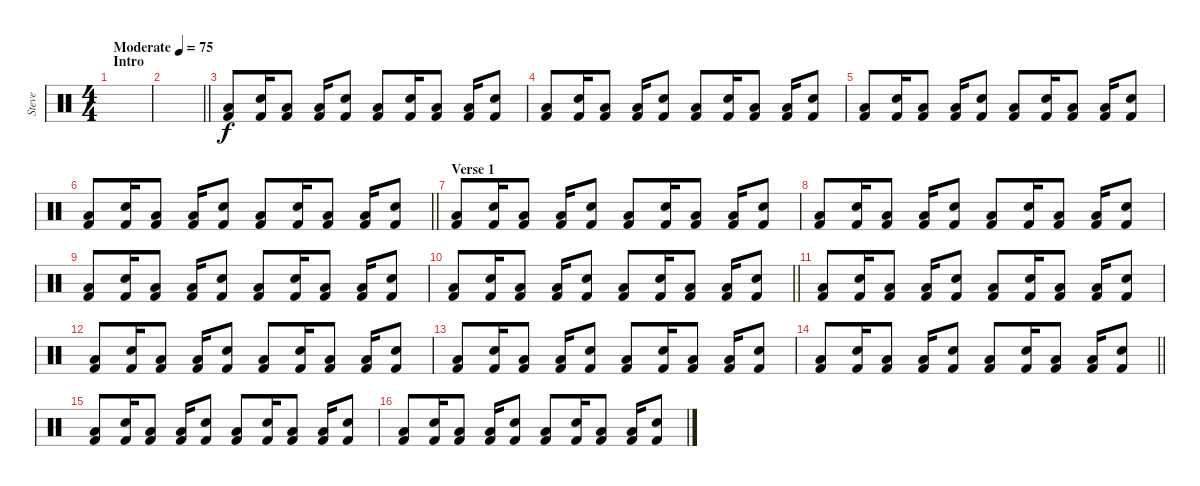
\track ("Steve" "Steve") {instrument percussion}
\staff {score}
\articulation defaults
\ts (4 4)
\section ("" "Intro")
\tempo (75 "Moderate")
\clef neutral
\ks c
|
\barLineRight lightlight
|
("Kick (hit) 2" "Low Floor Tom (hit)").8 ("Kick (hit) 2" "Snare (hit) 2").16 ("Kick (hit) 2" "Low Floor Tom (hit)").8 ("Kick (hit) 2" "Low Floor Tom (hit)").16 ("Kick (hit) 2" "Snare (hit) 2").8 ("Kick (hit) 2" "Low Floor Tom (hit)").8 ("Kick (hit) 2" "Snare (hit) 2").16 ("Kick (hit) 2" "Low Floor Tom (hit)").8 ("Kick (hit) 2" "Low Floor Tom (hit)").16 ("Kick (hit) 2" "Snare (hit) 2").8 |
("Kick (hit) 2" "Low Floor Tom (hit)").8 ("Kick (hit) 2" "Snare (hit) 2").16 ("Kick (hit) 2" "Low Floor Tom (hit)").8 ("Kick (hit) 2" "Low Floor Tom (hit)").16 ("Kick (hit) 2" "Snare (hit) 2").8 ("Kick (hit) 2" "Low Floor Tom (hit)").8 ("Kick (hit) 2" "Snare (hit) 2").16 ("Kick (hit) 2" "Low Floor Tom (hit)").8 ("Kick (hit) 2" "Low Floor Tom (hit)").16 ("Kick (hit) 2" "Snare (hit) 2").8 |
("Kick (hit) 2" "Low Floor Tom (hit)").8 ("Kick (hit) 2" "Snare (hit) 2").16 ("Kick (hit) 2" "Low Floor Tom (hit)").8 ("Kick (hit) 2" "Low Floor Tom (hit)").16 ("Kick (hit) 2" "Snare (hit) 2").8 ("Kick (hit) 2" "Low Floor Tom (hit)").8 ("Kick (hit) 2" "Snare (hit) 2").16 ("Kick (hit) 2" "Low Floor Tom (hit)").8 ("Kick (hit) 2" "Low Floor Tom (hit)").16 ("Kick (hit) 2" "Snare (hit) 2").8 |
\barLineRight lightlight
("Kick (hit) 2" "Low Floor Tom (hit)").8 ("Kick (hit) 2" "Snare (hit) 2").16 ("Kick (hit) 2" "Low Floor Tom (hit)").8 ("Kick (hit) 2" "Low Floor Tom (hit)").16 ("Kick (hit) 2" "Snare (hit) 2").8 ("Kick (hit) 2" "Low Floor Tom (hit)").8 ("Kick (hit) 2" "Snare (hit) 2").16 ("Kick (hit) 2" "Low Floor Tom (hit)").8 ("Kick (hit) 2" "Low Floor Tom (hit)").16 ("Kick (hit) 2" "Snare (hit) 2").8 |
\section ("" "Verse 1")
("Kick (hit) 2" "Low Floor Tom (hit)").8 ("Kick (hit) 2" "Snare (hit) 2").16 ("Kick (hit) 2" "Low Floor Tom (hit)").8 ("Kick (hit) 2" "Low Floor Tom (hit)").16 ("Kick (hit) 2" "Snare (hit) 2").8 ("Kick (hit) 2" "Low Floor Tom (hit)").8 ("Kick (hit) 2" "Snare (hit) 2").16 ("Kick (hit) 2" "Low Floor Tom (hit)").8 ("Kick (hit) 2" "Low Floor Tom (hit)").16 ("Kick (hit) 2" "Snare (hit) 2").8 |
("Kick (hit) 2" "Low Floor Tom (hit)").8 ("Kick (hit) 2" "Snare (hit) 2").16 ("Kick (hit) 2" "Low Floor Tom (hit)").8 ("Kick (hit) 2" "Low Floor Tom (hit)").16 ("Kick (hit) 2" "Snare (hit) 2").8 ("Kick (hit) 2" "Low Floor Tom (hit)").8 ("Kick (hit) 2" "Snare (hit) 2").16 ("Kick (hit) 2" "Low Floor Tom (hit)").8 ("Kick (hit) 2" "Low Floor Tom (hit)").16 ("Kick (hit) 2" "Snare (hit) 2").8 |
("Kick (hit) 2" "Low Floor Tom (hit)").8 ("Kick (hit) 2" "Snare (hit) 2").16 ("Kick (hit) 2" "Low Floor Tom (hit)").8 ("Kick (hit) 2" "Low Floor Tom (hit)").16 ("Kick (hit) 2" "Snare (hit) 2").8 ("Kick (hit) 2" "Low Floor Tom (hit)").8 ("Kick (hit) 2" "Snare (hit) 2").16 ("Kick (hit) 2" "Low Floor Tom (hit)").8 ("Kick (hit) 2" "Low Floor Tom (hit)").16 ("Kick (hit) 2" "Snare (hit) 2").8 |
\barLineRight lightlight
("Kick (hit) 2" "Low Floor Tom (hit)").8 ("Kick (hit) 2" "Snare (hit) 2").16 ("Kick (hit) 2" "Low Floor Tom (hit)").8 ("Kick (hit) 2" "Low Floor Tom (hit)").16 ("Kick (hit) 2" "Snare (hit) 2").8 ("Kick (hit) 2" "Low Floor Tom (hit)").8 ("Kick (hit) 2" "Snare (hit) 2").16 ("Kick (hit) 2" "Low Floor Tom (hit)").8 ("Kick (hit) 2" "Low Floor Tom (hit)").16 ("Kick (hit) 2" "Snare (hit) 2").8 |
("Kick (hit) 2" "Low Floor Tom (hit)").8 ("Kick (hit) 2" "Snare (hit) 2").16 ("Kick (hit) 2" "Low Floor Tom (hit)").8 ("Kick (hit) 2" "Low Floor Tom (hit)").16 ("Kick (hit) 2" "Snare (hit) 2").8 ("Kick (hit) 2" "Low Floor Tom (hit)").8 ("Kick (hit) 2" "Snare (hit) 2").16 ("Kick (hit) 2" "Low Floor Tom (hit)").8 ("Kick (hit) 2" "Low Floor Tom (hit)").16 ("Kick (hit) 2" "Snare (hit) 2").8 |
("Kick (hit) 2" "Low Floor Tom (hit)").8 ("Kick (hit) 2" "Snare (hit) 2").16 ("Kick (hit) 2" "Low Floor Tom (hit)").8 ("Kick (hit) 2" "Low Floor Tom (hit)").16 ("Kick (hit) 2" "Snare (hit) 2").8 ("Kick (hit) 2" "Low Floor Tom (hit)").8 ("Kick (hit) 2" "Snare (hit) 2").16 ("Kick (hit) 2" "Low Floor Tom (hit)").8 ("Kick (hit) 2" "Low Floor Tom (hit)").16 ("Kick (hit) 2" "Snare (hit) 2").8 |
("Kick (hit) 2" "Low Floor Tom (hit)").8 ("Kick (hit) 2" "Snare (hit) 2").16 ("Kick (hit) 2" "Low Floor Tom (hit)").8 ("Kick (hit) 2" "Low Floor Tom (hit)").16 ("Kick (hit) 2" "Snare (hit) 2").8 ("Kick (hit) 2" "Low Floor Tom (hit)").8 ("Kick (hit) 2" "Snare (hit) 2").16 ("Kick (hit) 2" "Low Floor Tom (hit)").8 ("Kick (hit) 2" "Low Floor Tom (hit)").16 ("Kick (hit) 2" "Snare (hit) 2").8 |
\barLineRight lightlight
("Kick (hit) 2" "Low Floor Tom (hit)").8 ("Kick (hit) 2" "Snare (hit) 2").16 ("Kick (hit) 2" "Low Floor Tom (hit)").8 ("Kick (hit) 2" "Low Floor Tom (hit)").16 ("Kick (hit) 2" "Snare (hit) 2").8 ("Kick (hit) 2" "Low Floor Tom (hit)").8 ("Kick (hit) 2" "Snare (hit) 2").16 ("Kick (hit) 2" "Low Floor Tom (hit)").8 ("Kick (hit) 2" "Low Floor Tom (hit)").16 ("Kick (hit) 2" "Snare (hit) 2").8 |
("Kick (hit) 2" "Low Floor Tom (hit)").8 ("Kick (hit) 2" "Snare (hit) 2").16 ("Kick (hit) 2" "Low Floor Tom (hit)").8 ("Kick (hit) 2" "Low Floor Tom (hit)").16 ("Kick (hit) 2" "Snare (hit) 2").8 ("Kick (hit) 2" "Low Floor Tom (hit)").8 ("Kick (hit) 2" "Snare (hit) 2").16 ("Kick (hit) 2" "Low Floor Tom (hit)").8 ("Kick (hit) 2" "Low Floor Tom (hit)").16 ("Kick (hit) 2" "Snare (hit) 2").8 |
("Kick (hit) 2" "Low Floor Tom (hit)").8 ("Kick (hit) 2" "Snare (hit) 2").16 ("Kick (hit) 2" "Low Floor Tom (hit)").8 ("Kick (hit) 2" "Low Floor Tom (hit)").16 ("Kick (hit) 2" "Snare (hit) 2").8 ("Kick (hit) 2" "Low Floor Tom (hit)").8 ("Kick (hit) 2" "Snare (hit) 2").16 ("Kick (hit) 2" "Low Floor Tom (hit)").8 ("Kick (hit) 2" "Low Floor Tom (hit)").16 ("Kick (hit) 2" "Snare (hit) 2").8
